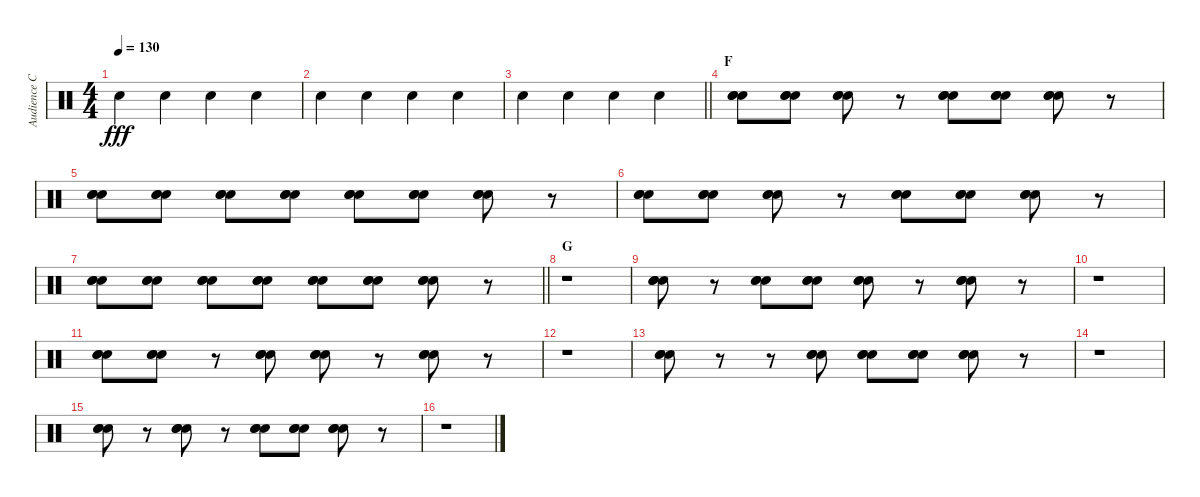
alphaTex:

\track ("Audience Claps" "Audience C") {instrument percussion}
\staff {score}
\articulation defaults
\ts (4 4)
\tempo 130
\clef neutral
\ks c "Hand Clap (hit)".4{dy fff} "Hand Clap (hit)".4 "Hand Clap (hit)".4 "Hand Clap (hit)".4
|
"Hand Clap (hit)".4 "Hand Clap (hit)".4 "Hand Clap (hit)".4 "Hand Clap (hit)".4 |
\barLineRight lightlight "Hand Clap (hit)".4 "Hand Clap (hit)".4 "Hand Clap (hit)".4 "Hand Clap (hit)".4
|
\section ("" "F")
("Hand Clap (hit)" "Hand Clap (hit)" "Hand Clap (hit)").8{bd 60} ("Hand Clap (hit)" "Hand Clap (hit)" "Hand Clap (hit)").8{bd 60} ("Hand Clap (hit)" "Hand Clap (hit)" "Hand Clap (hit)").8{bd 60} r.8 ("Hand Clap (hit)" "Hand Clap (hit)" "Hand Clap (hit)").8{bd 60} ("Hand Clap (hit)" "Hand Clap (hit)" "Hand Clap (hit)").8{bd 60} ("Hand Clap (hit)" "Hand Clap (hit)" "Hand Clap (hit)").8{bd 60} r.8 |
("Hand Clap (hit)" "Hand Clap (hit)" "Hand Clap (hit)").8{bd 60} ("Hand Clap (hit)" "Hand Clap (hit)" "Hand Clap (hit)").8{bd 60} ("Hand Clap (hit)" "Hand Clap (hit)" "Hand Clap (hit)").8{bd 60} ("Hand Clap (hit)" "Hand Clap (hit)" "Hand Clap (hit)").8{bd 60} ("Hand Clap (hit)" "Hand Clap (hit)" "Hand Clap (hit)").8{bd 60} ("Hand Clap (hit)" "Hand Clap (hit)" "Hand Clap (hit)").8{bd 60} ("Hand Clap (hit)" "Hand Clap (hit)" "Hand Clap (hit)").8{bd 60} r.8 |
("Hand Clap (hit)" "Hand Clap (hit)" "Hand Clap (hit)").8{bd 60} ("Hand Clap (hit)" "Hand Clap (hit)" "Hand Clap (hit)").8{bd 60} ("Hand Clap (hit)" "Hand Clap (hit)" "Hand Clap (hit)").8{bd 60} r.8 ("Hand Clap (hit)" "Hand Clap (hit)" "Hand Clap (hit)").8{bd 60} ("Hand Clap (hit)" "Hand Clap (hit)" "Hand Clap (hit)").8{bd 60} ("Hand Clap (hit)" "Hand Clap (hit)" "Hand Clap (hit)").8{bd 60} r.8 |
\barLineRight lightlight
("Hand Clap (hit)" "Hand Clap (hit)" "Hand Clap (hit)").8{bd 60} ("Hand Clap (hit)" "Hand Clap (hit)" "Hand Clap (hit)").8{bd 60} ("Hand Clap (hit)" "Hand Clap (hit)" "Hand Clap (hit)").8{bd 60} ("Hand Clap (hit)" "Hand Clap (hit)" "Hand Clap (hit)").8{bd 60} ("Hand Clap (hit)" "Hand Clap (hit)" "Hand Clap (hit)").8{bd 60} ("Hand Clap (hit)" "Hand Clap (hit)" "Hand Clap (hit)").8{bd 60} ("Hand Clap (hit)" "Hand Clap (hit)" "Hand Clap (hit)").8{bd 60} r.8 |
\section ("" "G")
r.1 |
("Hand Clap (hit)" "Hand Clap (hit)" "Hand Clap (hit)").8{bd 60} r.8 ("Hand Clap (hit)" "Hand Clap (hit)" "Hand Clap (hit)").8{bd 60} ("Hand Clap (hit)" "Hand Clap (hit)" "Hand Clap (hit)").8{bd 60} ("Hand Clap (hit)" "Hand Clap (hit)" "Hand Clap (hit)").8{bd 60} r.8 ("Hand Clap (hit)" "Hand Clap (hit)" "Hand Clap (hit)").8{bd 60} r.8 |
r.1 |
("Hand Clap (hit)" "Hand Clap (hit)" "Hand Clap (hit)").8{bd 60} ("Hand Clap (hit)" "Hand Clap (hit)" "Hand Clap (hit)").8{bd 60} r.8 ("Hand Clap (hit)" "Hand Clap (hit)" "Hand Clap (hit)").8{bd 60} ("Hand Clap (hit)" "Hand Clap (hit)" "Hand Clap (hit)").8{bd 60} r.8 ("Hand Clap (hit)" "Hand Clap (hit)" "Hand Clap (hit)").8{bd 60} r.8 |
r.1 |
("Hand Clap (hit)" "Hand Clap (hit)" "Hand Clap (hit)").8{bd 60} r.8 r.8 ("Hand Clap (hit)" "Hand Clap (hit)" "Hand Clap (hit)").8{bd 60} ("Hand Clap (hit)" "Hand Clap (hit)" "Hand Clap (hit)").8{bd 60} ("Hand Clap (hit)" "Hand Clap (hit)" "Hand Clap (hit)").8{bd 60} ("Hand Clap (hit)" "Hand Clap (hit)" "Hand Clap (hit)").8{bd 60} r.8 |
r.1 |
("Hand Clap (hit)" "Hand Clap (hit)" "Hand Clap (hit)").8{bd 60} r.8 ("Hand Clap (hit)" "Hand Clap (hit)" "Hand Clap (hit)").8{bd 60} r.8 ("Hand Clap (hit)" "Hand Clap (hit)" "Hand Clap (hit)").8{bd 60} ("Hand Clap (hit)" "Hand Clap (hit)" "Hand Clap (hit)").8{bd 60} ("Hand Clap (hit)" "Hand Clap (hit)" "Hand Clap (hit)").8{bd 60} r.8 |
r.1
